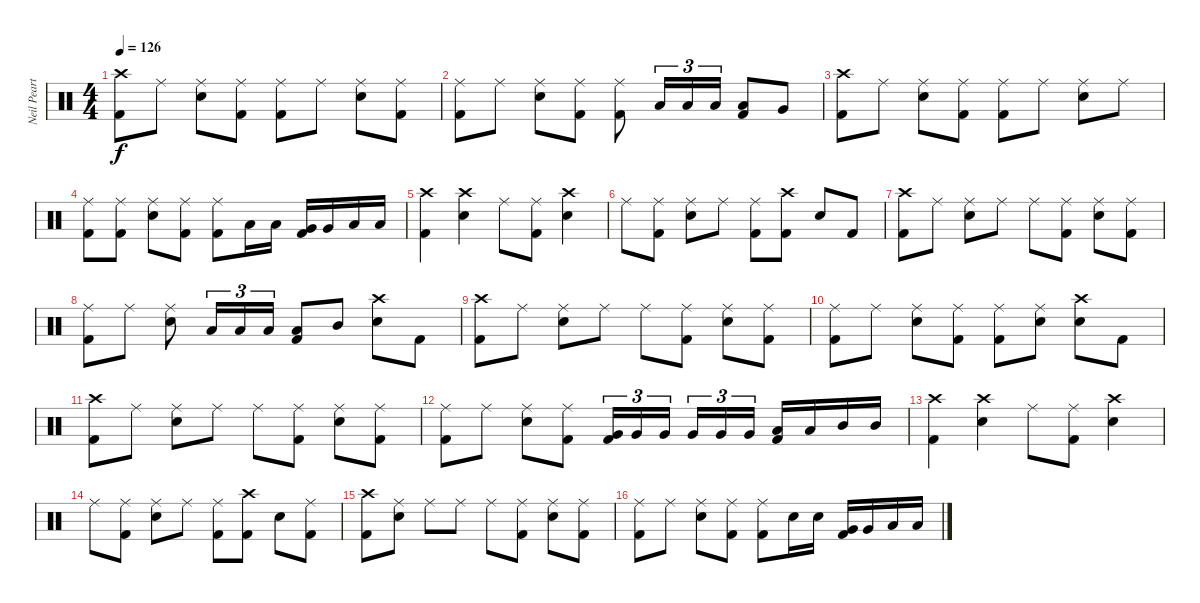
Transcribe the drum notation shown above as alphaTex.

\track ("Neil Peart" "Neil Peart") {instrument percussion}
\staff {score}
\articulation defaults
\ts (4 4)
\tempo 126
\clef neutral
\ks c
("Crash high (hit)" "Kick (hit) 2").8{dy f} "Ride (middle)".8 ("Electric Snare (hit)" "Ride (middle)").8 ("Ride (middle)" "Kick (hit) 2").8 ("Ride (middle)" "Kick (hit) 2").8 "Ride (middle)".8 ("Electric Snare (hit)" "Ride (middle)").8 ("Ride (middle)" "Kick (hit) 2").8 |
("Ride (middle)" "Kick (hit) 2").8 "Ride (middle)".8 ("Electric Snare (hit)" "Ride (middle)").8 ("Ride (middle)" "Kick (hit) 2").8 ("Ride (middle)" "Kick (hit) 2").8 "Low Floor Tom (hit)".16{tu (3 2)} "Low Floor Tom (hit)".16{tu (3 2)} "Low Floor Tom (hit)".16{tu (3 2)} ("Kick (hit) 2" "Low Floor Tom (hit)").8 "Very Low Tom (hit)".8 |
("Crash high (hit)" "Kick (hit) 2").8 "Ride (middle)".8 ("Electric Snare (hit)" "Ride (middle)").8 ("Ride (middle)" "Kick (hit) 2").8 ("Ride (middle)" "Kick (hit) 2").8 "Ride (middle)".8 ("Electric Snare (hit)" "Ride (middle)").8 "Ride (middle)".8 |
("Ride (middle)" "Kick (hit) 2").8 ("Ride (middle)" "Kick (hit) 2").8 ("Electric Snare (hit)" "Ride (middle)").8 ("Ride (middle)" "Kick (hit) 2").8 ("Ride (middle)" "Kick (hit) 2").8 "Low Floor Tom (hit)".16 "Low Floor Tom (hit)".16 ("Kick (hit) 2" "Very Low Tom (hit)").16 "Very Low Tom (hit)".16 "Low Tom (hit)".16 "Low Tom (hit)".16 |
("Crash high (hit)" "Kick (hit) 2").4 ("Electric Snare (hit)" "Crash high (hit)").4 "Ride (middle)".8 ("Ride (middle)" "Kick (hit) 2").8 ("Electric Snare (hit)" "Crash high (hit)").4 |
"Ride (middle)".8 ("Ride (middle)" "Kick (hit) 2").8 ("Electric Snare (hit)" "Ride (middle)").8 "Ride (middle)".8 ("Ride (middle)" "Kick (hit) 2").8 ("Crash high (hit)" "Kick (hit) 2").8 "Electric Snare (hit)".8 "Kick (hit) 2".8 |
("Crash high (hit)" "Kick (hit) 2").8 "Ride (middle)".8 ("Electric Snare (hit)" "Ride (middle)").8 "Ride (middle)".8 "Ride (middle)".8 ("Ride (middle)" "Kick (hit) 2").8 ("Electric Snare (hit)" "Ride (middle)").8 ("Ride (middle)" "Kick (hit) 2").8 |
("Ride (middle)" "Kick (hit) 2").8 "Ride (middle)".8 ("Electric Snare (hit)" "Ride (middle)").8 "Low Tom (hit)".16{tu (3 2)} "Low Tom (hit)".16{tu (3 2)} "Low Tom (hit)".16{tu (3 2)} ("Kick (hit) 2" "Low Tom (hit)").8 "Mid Tom (hit)".8 ("Electric Snare (hit)" "Crash high (hit)").8 "Kick (hit) 2".8 |
("Crash high (hit)" "Kick (hit) 2").8 "Ride (middle)".8 ("Electric Snare (hit)" "Ride (middle)").8 "Ride (middle)".8 "Ride (middle)".8 ("Ride (middle)" "Kick (hit) 2").8 ("Electric Snare (hit)" "Ride (middle)").8 ("Ride (middle)" "Kick (hit) 2").8 |
("Ride (middle)" "Kick (hit) 2").8 "Ride (middle)".8 ("Electric Snare (hit)" "Ride (middle)").8 ("Ride (middle)" "Kick (hit) 2").8 ("Ride (middle)" "Kick (hit) 2").8 ("Electric Snare (hit)" "Ride (middle)").8 ("Electric Snare (hit)" "Crash high (hit)").8 "Kick (hit) 2".8 |
("Crash high (hit)" "Kick (hit) 2").8 "Ride (middle)".8 ("Electric Snare (hit)" "Ride (middle)").8 "Ride (middle)".8 "Ride (middle)".8 ("Ride (middle)" "Kick (hit) 2").8 ("Electric Snare (hit)" "Ride (middle)").8 ("Ride (middle)" "Kick (hit) 2").8 |
("Ride (middle)" "Kick (hit) 2").8 "Ride (middle)".8 ("Electric Snare (hit)" "Ride (middle)").8 ("Ride (middle)" "Kick (hit) 2").8 ("Kick (hit) 2" "Very Low Tom (hit)").16{tu (3 2)} "Very Low Tom (hit)".16{tu (3 2)} "Very Low Tom (hit)".16{tu (3 2)} "Very Low Tom (hit)".16{tu (3 2)} "Very Low Tom (hit)".16{tu (3 2)} "Very Low Tom (hit)".16{tu (3 2)} ("Kick (hit) 2" "Low Tom (hit)").16 "Low Tom (hit)".16 "Mid Tom (hit)".16 "Mid Tom (hit)".16 |
("Crash high (hit)" "Kick (hit) 2").4 ("Electric Snare (hit)" "Crash high (hit)").4 "Ride (middle)".8 ("Ride (middle)" "Kick (hit) 2").8 ("Electric Snare (hit)" "Crash high (hit)").4 |
"Ride (middle)".8 ("Ride (middle)" "Kick (hit) 2").8 ("Electric Snare (hit)" "Ride (middle)").8 "Ride (middle)".8 ("Ride (middle)" "Kick (hit) 2").8 ("Crash high (hit)" "Kick (hit) 2").8 "Electric Snare (hit)".8 ("Ride (middle)" "Kick (hit) 2").8 |
("Crash high (hit)" "Kick (hit) 2").8 ("Electric Snare (hit)" "Ride (middle)").8 "Ride (middle)".8 "Ride (middle)".8 "Ride (middle)".8 ("Ride (middle)" "Kick (hit) 2").8 ("Electric Snare (hit)" "Ride (middle)").8 ("Ride (middle)" "Kick (hit) 2").8 |
("Ride (middle)" "Kick (hit) 2").8 "Ride (middle)".8 ("Electric Snare (hit)" "Ride (middle)").8 ("Ride (middle)" "Kick (hit) 2").8 ("Ride (middle)" "Kick (hit) 2").8 "Electric Snare (hit)".16 "Electric Snare (hit)".16 ("Kick (hit) 2" "Very Low Tom (hit)").16 "Very Low Tom (hit)".16 "Low Tom (hit)".16 "Low Tom (hit)".16
